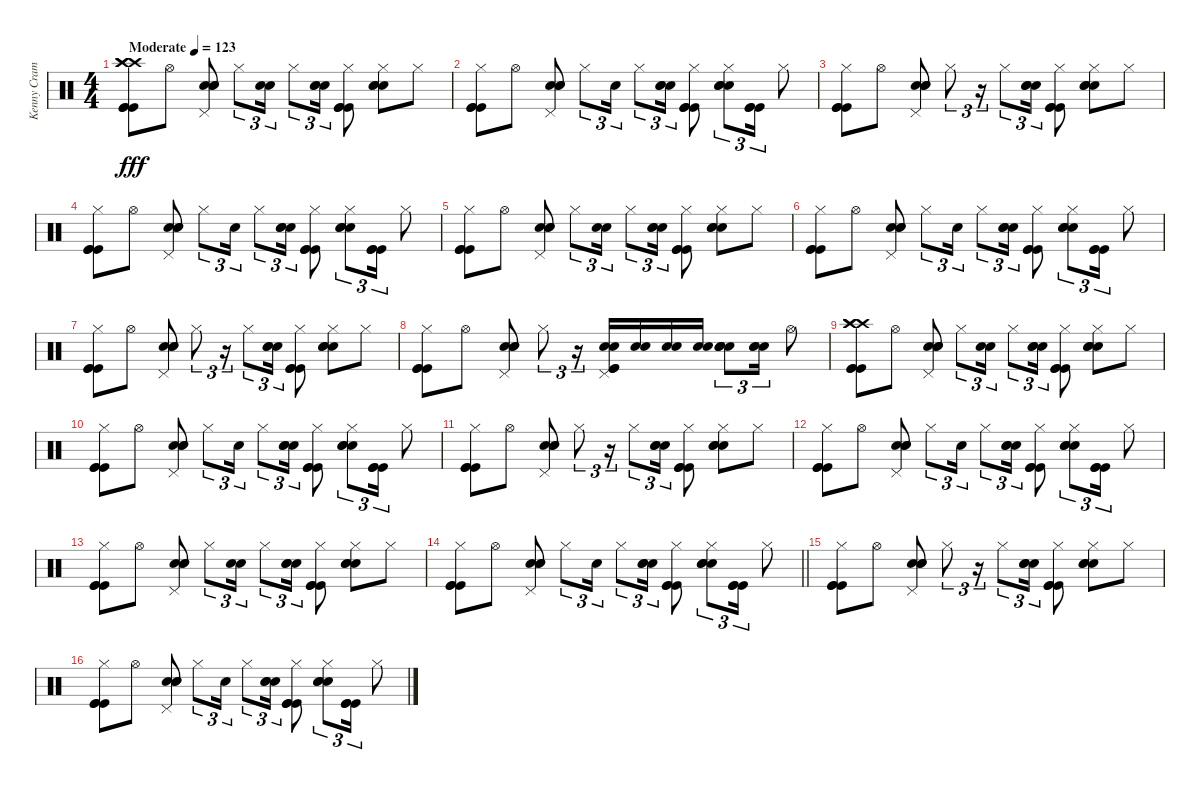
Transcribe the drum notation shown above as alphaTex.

\track ("Kenny Cramme - Drums" "Kenny Cram") {instrument percussion}
\staff {score}
\articulation defaults
\ts (4 4)
\tempo (123 "Moderate")
\clef neutral
\ks c
("Crash high (hit)" "Crash high (hit)" "Crash high (hit)" "Kick (hit)" "Kick (hit)" "Kick (hit)").8{dy fff} "Hi-Hat (open)".8 ("Pedal Hi-Hat (hit)" "Snare (hit) 2" "Snare (hit) 2" "Snare (hit) 2").8 "Hi-Hat (closed)".8{tu (3 2)} ("Snare (hit) 2" "Snare (hit) 2").16{tu (3 2)} "Hi-Hat (closed)".8{tu (3 2)} ("Snare (hit) 2" "Snare (hit) 2" "Snare (hit) 2").16{tu (3 2)} ("Hi-Hat (closed)" "Kick (hit)" "Kick (hit)" "Kick (hit)").8 ("Hi-Hat (closed)" "Snare (hit) 2" "Snare (hit) 2" "Snare (hit) 2").8 "Hi-Hat (closed)".8 |
("Hi-Hat (closed)" "Kick (hit)" "Kick (hit)" "Kick (hit)").8 "Hi-Hat (open)".8 ("Pedal Hi-Hat (hit)" "Snare (hit) 2" "Snare (hit) 2" "Snare (hit) 2").8 "Hi-Hat (closed)".8{tu (3 2)} "Snare (hit) 2".16{tu (3 2)} "Hi-Hat (closed)".8{tu (3 2)} ("Snare (hit) 2" "Snare (hit) 2" "Snare (hit) 2").16{tu (3 2)} ("Hi-Hat (closed)" "Kick (hit)" "Kick (hit)" "Kick (hit)").8 ("Hi-Hat (closed)" "Snare (hit) 2" "Snare (hit) 2" "Snare (hit) 2").8{tu (3 2)} ("Kick (hit)" "Kick (hit)" "Kick (hit)").16{tu (3 2)} "Hi-Hat (closed)".8 |
("Hi-Hat (closed)" "Kick (hit)" "Kick (hit)" "Kick (hit)").8 "Hi-Hat (open)".8 ("Pedal Hi-Hat (hit)" "Snare (hit) 2" "Snare (hit) 2" "Snare (hit) 2").8 "Hi-Hat (closed)".8{tu (3 2)} r.16{tu (3 2)} "Hi-Hat (closed)".8{tu (3 2)} ("Snare (hit) 2" "Snare (hit) 2" "Snare (hit) 2").16{tu (3 2)} ("Hi-Hat (closed)" "Kick (hit)" "Kick (hit)" "Kick (hit)").8 ("Hi-Hat (closed)" "Snare (hit) 2" "Snare (hit) 2" "Snare (hit) 2").8 "Hi-Hat (closed)".8 |
("Hi-Hat (closed)" "Kick (hit)" "Kick (hit)" "Kick (hit)").8 "Hi-Hat (open)".8 ("Pedal Hi-Hat (hit)" "Snare (hit) 2" "Snare (hit) 2" "Snare (hit) 2").8 "Hi-Hat (closed)".8{tu (3 2)} "Snare (hit) 2".16{tu (3 2)} "Hi-Hat (closed)".8{tu (3 2)} ("Snare (hit) 2" "Snare (hit) 2" "Snare (hit) 2").16{tu (3 2)} ("Hi-Hat (closed)" "Kick (hit)" "Kick (hit)" "Kick (hit)").8 ("Hi-Hat (closed)" "Snare (hit) 2" "Snare (hit) 2" "Snare (hit) 2").8{tu (3 2)} ("Kick (hit)" "Kick (hit)" "Kick (hit)").16{tu (3 2)} "Hi-Hat (closed)".8 |
("Hi-Hat (closed)" "Kick (hit)" "Kick (hit)" "Kick (hit)").8 "Hi-Hat (open)".8 ("Pedal Hi-Hat (hit)" "Snare (hit) 2" "Snare (hit) 2" "Snare (hit) 2").8 "Hi-Hat (closed)".8{tu (3 2)} ("Snare (hit) 2" "Snare (hit) 2").16{tu (3 2)} "Hi-Hat (closed)".8{tu (3 2)} ("Snare (hit) 2" "Snare (hit) 2" "Snare (hit) 2").16{tu (3 2)} ("Hi-Hat (closed)" "Kick (hit)" "Kick (hit)" "Kick (hit)").8 ("Hi-Hat (closed)" "Snare (hit) 2" "Snare (hit) 2" "Snare (hit) 2").8 "Hi-Hat (closed)".8 |
("Hi-Hat (closed)" "Kick (hit)" "Kick (hit)" "Kick (hit)").8 "Hi-Hat (open)".8 ("Pedal Hi-Hat (hit)" "Snare (hit) 2" "Snare (hit) 2" "Snare (hit) 2").8 "Hi-Hat (closed)".8{tu (3 2)} "Snare (hit) 2".16{tu (3 2)} "Hi-Hat (closed)".8{tu (3 2)} ("Snare (hit) 2" "Snare (hit) 2" "Snare (hit) 2").16{tu (3 2)} ("Hi-Hat (closed)" "Kick (hit)" "Kick (hit)" "Kick (hit)").8 ("Hi-Hat (closed)" "Snare (hit) 2" "Snare (hit) 2" "Snare (hit) 2").8{tu (3 2)} ("Kick (hit)" "Kick (hit)" "Kick (hit)").16{tu (3 2)} "Hi-Hat (closed)".8 |
("Hi-Hat (closed)" "Kick (hit)" "Kick (hit)" "Kick (hit)").8 "Hi-Hat (open)".8 ("Pedal Hi-Hat (hit)" "Snare (hit) 2" "Snare (hit) 2" "Snare (hit) 2").8 "Hi-Hat (closed)".8{tu (3 2)} r.16{tu (3 2)} "Hi-Hat (closed)".8{tu (3 2)} ("Snare (hit) 2" "Snare (hit) 2" "Snare (hit) 2").16{tu (3 2)} ("Hi-Hat (closed)" "Kick (hit)" "Kick (hit)" "Kick (hit)").8 ("Hi-Hat (closed)" "Snare (hit) 2" "Snare (hit) 2" "Snare (hit) 2").8 "Hi-Hat (closed)".8 |
("Hi-Hat (closed)" "Kick (hit)" "Kick (hit)" "Kick (hit)").8 "Hi-Hat (open)".8 ("Pedal Hi-Hat (hit)" "Snare (hit) 2" "Snare (hit) 2" "Snare (hit) 2").8 "Hi-Hat (closed)".8{tu (3 2)} r.16{tu (3 2)} ("Pedal Hi-Hat (hit)" "Snare (hit) 2" "Snare (hit) 2" "Kick (hit)" "Kick (hit)").16 ("Snare (hit) 2" "Snare (hit) 2").16 ("Snare (hit) 2" "Snare (hit) 2").16 ("Snare (hit) 2" "Snare (hit) 2").16 ("Snare (hit) 2" "Snare (hit) 2" "Snare (hit) 2" "Snare (hit) 2").8{tu (3 2)} ("Snare (hit) 2" "Snare (hit) 2" "Snare (hit) 2").16{tu (3 2)} "Hi-Hat (open)".8 |
("Crash high (hit)" "Crash high (hit)" "Crash high (hit)" "Kick (hit)" "Kick (hit)" "Kick (hit)").8 "Hi-Hat (open)".8 ("Pedal Hi-Hat (hit)" "Snare (hit) 2" "Snare (hit) 2" "Snare (hit) 2").8 "Hi-Hat (closed)".8{tu (3 2)} ("Snare (hit) 2" "Snare (hit) 2").16{tu (3 2)} "Hi-Hat (closed)".8{tu (3 2)} ("Snare (hit) 2" "Snare (hit) 2" "Snare (hit) 2").16{tu (3 2)} ("Hi-Hat (closed)" "Kick (hit)" "Kick (hit)" "Kick (hit)").8 ("Hi-Hat (closed)" "Snare (hit) 2" "Snare (hit) 2" "Snare (hit) 2").8 "Hi-Hat (closed)".8 |
("Hi-Hat (closed)" "Kick (hit)" "Kick (hit)" "Kick (hit)").8 "Hi-Hat (open)".8 ("Pedal Hi-Hat (hit)" "Snare (hit) 2" "Snare (hit) 2" "Snare (hit) 2").8 "Hi-Hat (closed)".8{tu (3 2)} "Snare (hit) 2".16{tu (3 2)} "Hi-Hat (closed)".8{tu (3 2)} ("Snare (hit) 2" "Snare (hit) 2" "Snare (hit) 2").16{tu (3 2)} ("Hi-Hat (closed)" "Kick (hit)" "Kick (hit)" "Kick (hit)").8 ("Hi-Hat (closed)" "Snare (hit) 2" "Snare (hit) 2" "Snare (hit) 2").8{tu (3 2)} ("Kick (hit)" "Kick (hit)" "Kick (hit)").16{tu (3 2)} "Hi-Hat (closed)".8 |
("Hi-Hat (closed)" "Kick (hit)" "Kick (hit)" "Kick (hit)").8 "Hi-Hat (open)".8 ("Pedal Hi-Hat (hit)" "Snare (hit) 2" "Snare (hit) 2" "Snare (hit) 2").8 "Hi-Hat (closed)".8{tu (3 2)} r.16{tu (3 2)} "Hi-Hat (closed)".8{tu (3 2)} ("Snare (hit) 2" "Snare (hit) 2" "Snare (hit) 2").16{tu (3 2)} ("Hi-Hat (closed)" "Kick (hit)" "Kick (hit)" "Kick (hit)").8 ("Hi-Hat (closed)" "Snare (hit) 2" "Snare (hit) 2" "Snare (hit) 2").8 "Hi-Hat (closed)".8 |
("Hi-Hat (closed)" "Kick (hit)" "Kick (hit)" "Kick (hit)").8 "Hi-Hat (open)".8 ("Pedal Hi-Hat (hit)" "Snare (hit) 2" "Snare (hit) 2" "Snare (hit) 2").8 "Hi-Hat (closed)".8{tu (3 2)} "Snare (hit) 2".16{tu (3 2)} "Hi-Hat (closed)".8{tu (3 2)} ("Snare (hit) 2" "Snare (hit) 2" "Snare (hit) 2").16{tu (3 2)} ("Hi-Hat (closed)" "Kick (hit)" "Kick (hit)" "Kick (hit)").8 ("Hi-Hat (closed)" "Snare (hit) 2" "Snare (hit) 2" "Snare (hit) 2").8{tu (3 2)} ("Kick (hit)" "Kick (hit)" "Kick (hit)").16{tu (3 2)} "Hi-Hat (closed)".8 |
("Hi-Hat (closed)" "Kick (hit)" "Kick (hit)" "Kick (hit)").8 "Hi-Hat (open)".8 ("Pedal Hi-Hat (hit)" "Snare (hit) 2" "Snare (hit) 2" "Snare (hit) 2").8 "Hi-Hat (closed)".8{tu (3 2)} ("Snare (hit) 2" "Snare (hit) 2").16{tu (3 2)} "Hi-Hat (closed)".8{tu (3 2)} ("Snare (hit) 2" "Snare (hit) 2" "Snare (hit) 2").16{tu (3 2)} ("Hi-Hat (closed)" "Kick (hit)" "Kick (hit)" "Kick (hit)").8 ("Hi-Hat (closed)" "Snare (hit) 2" "Snare (hit) 2" "Snare (hit) 2").8 "Hi-Hat (closed)".8 |
\barLineRight lightlight
("Hi-Hat (closed)" "Kick (hit)" "Kick (hit)" "Kick (hit)").8 "Hi-Hat (open)".8 ("Pedal Hi-Hat (hit)" "Snare (hit) 2" "Snare (hit) 2" "Snare (hit) 2").8 "Hi-Hat (closed)".8{tu (3 2)} "Snare (hit) 2".16{tu (3 2)} "Hi-Hat (closed)".8{tu (3 2)} ("Snare (hit) 2" "Snare (hit) 2" "Snare (hit) 2").16{tu (3 2)} ("Hi-Hat (closed)" "Kick (hit)" "Kick (hit)" "Kick (hit)").8 ("Hi-Hat (closed)" "Snare (hit) 2" "Snare (hit) 2" "Snare (hit) 2").8{tu (3 2)} ("Kick (hit)" "Kick (hit)" "Kick (hit)").16{tu (3 2)} "Hi-Hat (closed)".8 |
("Hi-Hat (closed)" "Kick (hit)" "Kick (hit)" "Kick (hit)").8 "Hi-Hat (open)".8 ("Pedal Hi-Hat (hit)" "Snare (hit) 2" "Snare (hit) 2" "Snare (hit) 2").8 "Hi-Hat (closed)".8{tu (3 2)} r.16{tu (3 2)} "Hi-Hat (closed)".8{tu (3 2)} ("Snare (hit) 2" "Snare (hit) 2" "Snare (hit) 2").16{tu (3 2)} ("Hi-Hat (closed)" "Kick (hit)" "Kick (hit)" "Kick (hit)").8 ("Hi-Hat (closed)" "Snare (hit) 2" "Snare (hit) 2" "Snare (hit) 2").8 "Hi-Hat (closed)".8 |
("Hi-Hat (closed)" "Kick (hit)" "Kick (hit)" "Kick (hit)").8 "Hi-Hat (open)".8 ("Pedal Hi-Hat (hit)" "Snare (hit) 2" "Snare (hit) 2" "Snare (hit) 2").8 "Hi-Hat (closed)".8{tu (3 2)} "Snare (hit) 2".16{tu (3 2)} "Hi-Hat (closed)".8{tu (3 2)} ("Snare (hit) 2" "Snare (hit) 2" "Snare (hit) 2").16{tu (3 2)} ("Hi-Hat (closed)" "Kick (hit)" "Kick (hit)" "Kick (hit)").8 ("Hi-Hat (closed)" "Snare (hit) 2" "Snare (hit) 2" "Snare (hit) 2").8{tu (3 2)} ("Kick (hit)" "Kick (hit)" "Kick (hit)").16{tu (3 2)} "Hi-Hat (closed)".8
